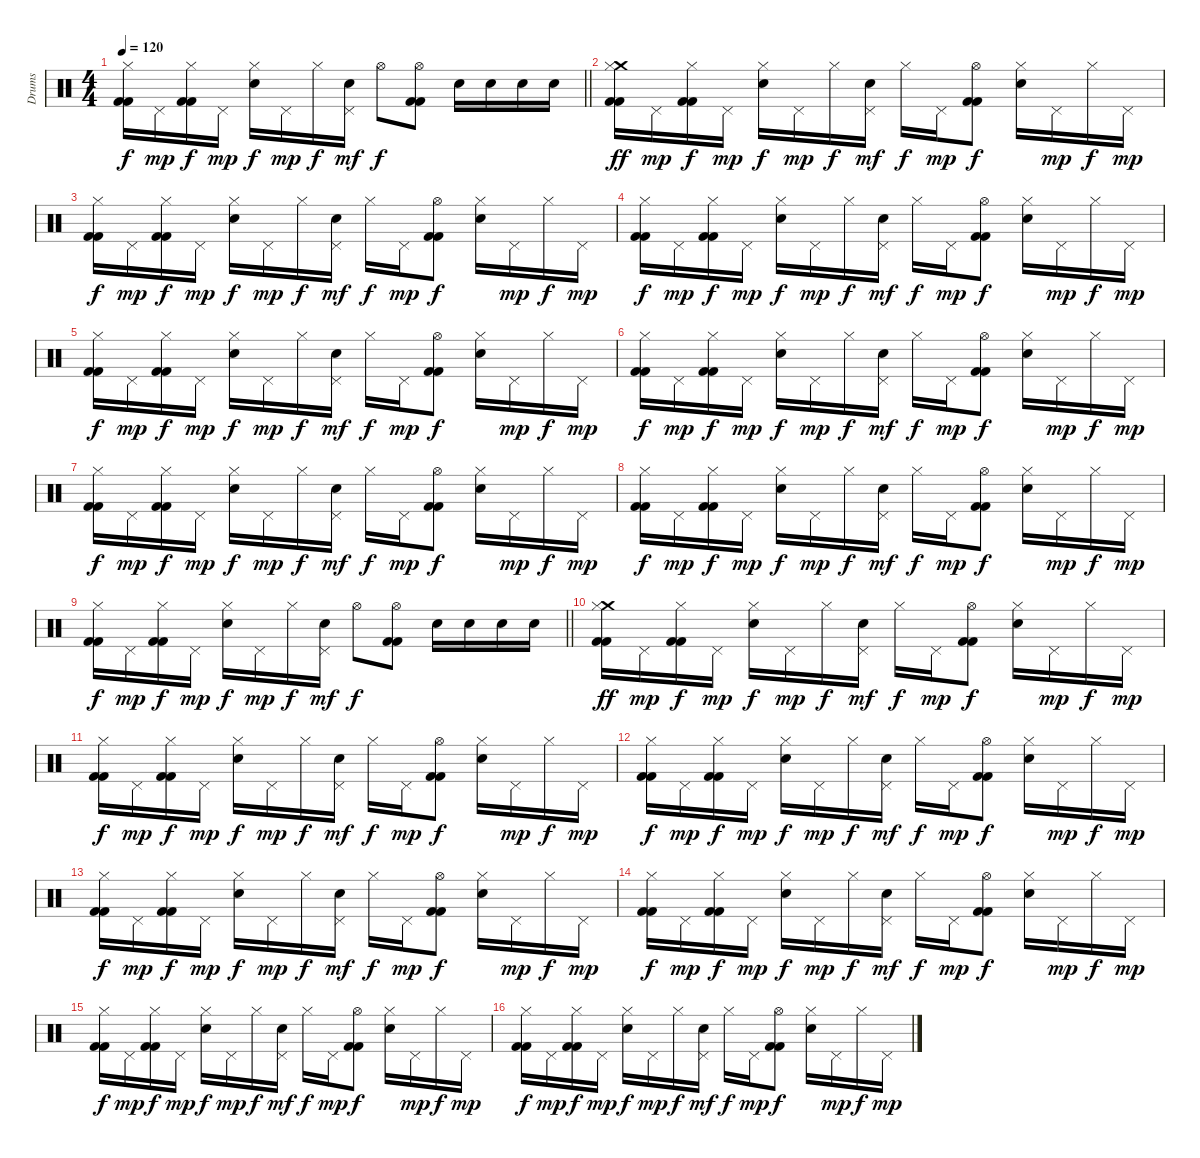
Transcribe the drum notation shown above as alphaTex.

\track ("Drums" "Drums") {instrument percussion}
\staff {score}
\articulation defaults
\ts (4 4)
\tempo 120
\clef neutral
\barLineRight lightlight
\ks c
("Hi-Hat (closed)" "Kick (hit) 2" "Kick (hit) 2").16{dy f} "Pedal Hi-Hat (hit)".16{dy mp} ("Hi-Hat (closed)" "Kick (hit) 2" "Kick (hit) 2").16{dy f} "Pedal Hi-Hat (hit)".16{dy mp} ("Hi-Hat (closed)" "Electric Snare (hit)").16{dy f} "Pedal Hi-Hat (hit)".16{dy mp} "Hi-Hat (closed)".16{dy f} ("Pedal Hi-Hat (hit)" "Electric Snare (hit)").16{dy mf} "Hi-Hat (open)".8{dy f} ("Hi-Hat (open)" "Kick (hit) 2" "Kick (hit) 2").8 "Electric Snare (hit)".16 "Electric Snare (hit)".16 "Electric Snare (hit)".16 "Electric Snare (hit)".16 |
("Crash medium (hit)" "Hi-Hat (closed)" "Kick (hit) 2" "Kick (hit) 2").16{dy ff} "Pedal Hi-Hat (hit)".16{dy mp} ("Hi-Hat (closed)" "Kick (hit) 2" "Kick (hit) 2").16{dy f} "Pedal Hi-Hat (hit)".16{dy mp} ("Hi-Hat (closed)" "Electric Snare (hit)").16{dy f} "Pedal Hi-Hat (hit)".16{dy mp} "Hi-Hat (closed)".16{dy f} ("Pedal Hi-Hat (hit)" "Electric Snare (hit)").16{dy mf} "Hi-Hat (closed)".16{dy f} "Pedal Hi-Hat (hit)".16{dy mp} ("Hi-Hat (open)" "Kick (hit) 2" "Kick (hit) 2").8{dy f} ("Hi-Hat (closed)" "Electric Snare (hit)").16 "Pedal Hi-Hat (hit)".16{dy mp} "Hi-Hat (closed)".16{dy f} "Pedal Hi-Hat (hit)".16{dy mp} |
("Hi-Hat (closed)" "Kick (hit) 2" "Kick (hit) 2").16{dy f} "Pedal Hi-Hat (hit)".16{dy mp} ("Hi-Hat (closed)" "Kick (hit) 2" "Kick (hit) 2").16{dy f} "Pedal Hi-Hat (hit)".16{dy mp} ("Hi-Hat (closed)" "Electric Snare (hit)").16{dy f} "Pedal Hi-Hat (hit)".16{dy mp} "Hi-Hat (closed)".16{dy f} ("Pedal Hi-Hat (hit)" "Electric Snare (hit)").16{dy mf} "Hi-Hat (closed)".16{dy f} "Pedal Hi-Hat (hit)".16{dy mp} ("Hi-Hat (open)" "Kick (hit) 2" "Kick (hit) 2").8{dy f} ("Hi-Hat (closed)" "Electric Snare (hit)").16 "Pedal Hi-Hat (hit)".16{dy mp} "Hi-Hat (closed)".16{dy f} "Pedal Hi-Hat (hit)".16{dy mp} |
("Hi-Hat (closed)" "Kick (hit) 2" "Kick (hit) 2").16{dy f} "Pedal Hi-Hat (hit)".16{dy mp} ("Hi-Hat (closed)" "Kick (hit) 2" "Kick (hit) 2").16{dy f} "Pedal Hi-Hat (hit)".16{dy mp} ("Hi-Hat (closed)" "Electric Snare (hit)").16{dy f} "Pedal Hi-Hat (hit)".16{dy mp} "Hi-Hat (closed)".16{dy f} ("Pedal Hi-Hat (hit)" "Electric Snare (hit)").16{dy mf} "Hi-Hat (closed)".16{dy f} "Pedal Hi-Hat (hit)".16{dy mp} ("Hi-Hat (open)" "Kick (hit) 2" "Kick (hit) 2").8{dy f} ("Hi-Hat (closed)" "Electric Snare (hit)").16 "Pedal Hi-Hat (hit)".16{dy mp} "Hi-Hat (closed)".16{dy f} "Pedal Hi-Hat (hit)".16{dy mp} |
("Hi-Hat (closed)" "Kick (hit) 2" "Kick (hit) 2").16{dy f} "Pedal Hi-Hat (hit)".16{dy mp} ("Hi-Hat (closed)" "Kick (hit) 2" "Kick (hit) 2").16{dy f} "Pedal Hi-Hat (hit)".16{dy mp} ("Hi-Hat (closed)" "Electric Snare (hit)").16{dy f} "Pedal Hi-Hat (hit)".16{dy mp} "Hi-Hat (closed)".16{dy f} ("Pedal Hi-Hat (hit)" "Electric Snare (hit)").16{dy mf} "Hi-Hat (closed)".16{dy f} "Pedal Hi-Hat (hit)".16{dy mp} ("Hi-Hat (open)" "Kick (hit) 2" "Kick (hit) 2").8{dy f} ("Hi-Hat (closed)" "Electric Snare (hit)").16 "Pedal Hi-Hat (hit)".16{dy mp} "Hi-Hat (closed)".16{dy f} "Pedal Hi-Hat (hit)".16{dy mp} |
("Hi-Hat (closed)" "Kick (hit) 2" "Kick (hit) 2").16{dy f} "Pedal Hi-Hat (hit)".16{dy mp} ("Hi-Hat (closed)" "Kick (hit) 2" "Kick (hit) 2").16{dy f} "Pedal Hi-Hat (hit)".16{dy mp} ("Hi-Hat (closed)" "Electric Snare (hit)").16{dy f} "Pedal Hi-Hat (hit)".16{dy mp} "Hi-Hat (closed)".16{dy f} ("Pedal Hi-Hat (hit)" "Electric Snare (hit)").16{dy mf} "Hi-Hat (closed)".16{dy f} "Pedal Hi-Hat (hit)".16{dy mp} ("Hi-Hat (open)" "Kick (hit) 2" "Kick (hit) 2").8{dy f} ("Hi-Hat (closed)" "Electric Snare (hit)").16 "Pedal Hi-Hat (hit)".16{dy mp} "Hi-Hat (closed)".16{dy f} "Pedal Hi-Hat (hit)".16{dy mp} |
("Hi-Hat (closed)" "Kick (hit) 2" "Kick (hit) 2").16{dy f} "Pedal Hi-Hat (hit)".16{dy mp} ("Hi-Hat (closed)" "Kick (hit) 2" "Kick (hit) 2").16{dy f} "Pedal Hi-Hat (hit)".16{dy mp} ("Hi-Hat (closed)" "Electric Snare (hit)").16{dy f} "Pedal Hi-Hat (hit)".16{dy mp} "Hi-Hat (closed)".16{dy f} ("Pedal Hi-Hat (hit)" "Electric Snare (hit)").16{dy mf} "Hi-Hat (closed)".16{dy f} "Pedal Hi-Hat (hit)".16{dy mp} ("Hi-Hat (open)" "Kick (hit) 2" "Kick (hit) 2").8{dy f} ("Hi-Hat (closed)" "Electric Snare (hit)").16 "Pedal Hi-Hat (hit)".16{dy mp} "Hi-Hat (closed)".16{dy f} "Pedal Hi-Hat (hit)".16{dy mp} |
("Hi-Hat (closed)" "Kick (hit) 2" "Kick (hit) 2").16{dy f} "Pedal Hi-Hat (hit)".16{dy mp} ("Hi-Hat (closed)" "Kick (hit) 2" "Kick (hit) 2").16{dy f} "Pedal Hi-Hat (hit)".16{dy mp} ("Hi-Hat (closed)" "Electric Snare (hit)").16{dy f} "Pedal Hi-Hat (hit)".16{dy mp} "Hi-Hat (closed)".16{dy f} ("Pedal Hi-Hat (hit)" "Electric Snare (hit)").16{dy mf} "Hi-Hat (closed)".16{dy f} "Pedal Hi-Hat (hit)".16{dy mp} ("Hi-Hat (open)" "Kick (hit) 2" "Kick (hit) 2").8{dy f} ("Hi-Hat (closed)" "Electric Snare (hit)").16 "Pedal Hi-Hat (hit)".16{dy mp} "Hi-Hat (closed)".16{dy f} "Pedal Hi-Hat (hit)".16{dy mp} |
\barLineRight lightlight
("Hi-Hat (closed)" "Kick (hit) 2" "Kick (hit) 2").16{dy f} "Pedal Hi-Hat (hit)".16{dy mp} ("Hi-Hat (closed)" "Kick (hit) 2" "Kick (hit) 2").16{dy f} "Pedal Hi-Hat (hit)".16{dy mp} ("Hi-Hat (closed)" "Electric Snare (hit)").16{dy f} "Pedal Hi-Hat (hit)".16{dy mp} "Hi-Hat (closed)".16{dy f} ("Pedal Hi-Hat (hit)" "Electric Snare (hit)").16{dy mf} "Hi-Hat (open)".8{dy f} ("Hi-Hat (open)" "Kick (hit) 2" "Kick (hit) 2").8 "Electric Snare (hit)".16 "Electric Snare (hit)".16 "Electric Snare (hit)".16 "Electric Snare (hit)".16 |
("Crash medium (hit)" "Hi-Hat (closed)" "Kick (hit) 2" "Kick (hit) 2").16{dy ff} "Pedal Hi-Hat (hit)".16{dy mp} ("Hi-Hat (closed)" "Kick (hit) 2" "Kick (hit) 2").16{dy f} "Pedal Hi-Hat (hit)".16{dy mp} ("Hi-Hat (closed)" "Electric Snare (hit)").16{dy f} "Pedal Hi-Hat (hit)".16{dy mp} "Hi-Hat (closed)".16{dy f} ("Pedal Hi-Hat (hit)" "Electric Snare (hit)").16{dy mf} "Hi-Hat (closed)".16{dy f} "Pedal Hi-Hat (hit)".16{dy mp} ("Hi-Hat (open)" "Kick (hit) 2" "Kick (hit) 2").8{dy f} ("Hi-Hat (closed)" "Electric Snare (hit)").16 "Pedal Hi-Hat (hit)".16{dy mp} "Hi-Hat (closed)".16{dy f} "Pedal Hi-Hat (hit)".16{dy mp} |
("Hi-Hat (closed)" "Kick (hit) 2" "Kick (hit) 2").16{dy f} "Pedal Hi-Hat (hit)".16{dy mp} ("Hi-Hat (closed)" "Kick (hit) 2" "Kick (hit) 2").16{dy f} "Pedal Hi-Hat (hit)".16{dy mp} ("Hi-Hat (closed)" "Electric Snare (hit)").16{dy f} "Pedal Hi-Hat (hit)".16{dy mp} "Hi-Hat (closed)".16{dy f} ("Pedal Hi-Hat (hit)" "Electric Snare (hit)").16{dy mf} "Hi-Hat (closed)".16{dy f} "Pedal Hi-Hat (hit)".16{dy mp} ("Hi-Hat (open)" "Kick (hit) 2" "Kick (hit) 2").8{dy f} ("Hi-Hat (closed)" "Electric Snare (hit)").16 "Pedal Hi-Hat (hit)".16{dy mp} "Hi-Hat (closed)".16{dy f} "Pedal Hi-Hat (hit)".16{dy mp} |
("Hi-Hat (closed)" "Kick (hit) 2" "Kick (hit) 2").16{dy f} "Pedal Hi-Hat (hit)".16{dy mp} ("Hi-Hat (closed)" "Kick (hit) 2" "Kick (hit) 2").16{dy f} "Pedal Hi-Hat (hit)".16{dy mp} ("Hi-Hat (closed)" "Electric Snare (hit)").16{dy f} "Pedal Hi-Hat (hit)".16{dy mp} "Hi-Hat (closed)".16{dy f} ("Pedal Hi-Hat (hit)" "Electric Snare (hit)").16{dy mf} "Hi-Hat (closed)".16{dy f} "Pedal Hi-Hat (hit)".16{dy mp} ("Hi-Hat (open)" "Kick (hit) 2" "Kick (hit) 2").8{dy f} ("Hi-Hat (closed)" "Electric Snare (hit)").16 "Pedal Hi-Hat (hit)".16{dy mp} "Hi-Hat (closed)".16{dy f} "Pedal Hi-Hat (hit)".16{dy mp} |
("Hi-Hat (closed)" "Kick (hit) 2" "Kick (hit) 2").16{dy f} "Pedal Hi-Hat (hit)".16{dy mp} ("Hi-Hat (closed)" "Kick (hit) 2" "Kick (hit) 2").16{dy f} "Pedal Hi-Hat (hit)".16{dy mp} ("Hi-Hat (closed)" "Electric Snare (hit)").16{dy f} "Pedal Hi-Hat (hit)".16{dy mp} "Hi-Hat (closed)".16{dy f} ("Pedal Hi-Hat (hit)" "Electric Snare (hit)").16{dy mf} "Hi-Hat (closed)".16{dy f} "Pedal Hi-Hat (hit)".16{dy mp} ("Hi-Hat (open)" "Kick (hit) 2" "Kick (hit) 2").8{dy f} ("Hi-Hat (closed)" "Electric Snare (hit)").16 "Pedal Hi-Hat (hit)".16{dy mp} "Hi-Hat (closed)".16{dy f} "Pedal Hi-Hat (hit)".16{dy mp} |
("Hi-Hat (closed)" "Kick (hit) 2" "Kick (hit) 2").16{dy f} "Pedal Hi-Hat (hit)".16{dy mp} ("Hi-Hat (closed)" "Kick (hit) 2" "Kick (hit) 2").16{dy f} "Pedal Hi-Hat (hit)".16{dy mp} ("Hi-Hat (closed)" "Electric Snare (hit)").16{dy f} "Pedal Hi-Hat (hit)".16{dy mp} "Hi-Hat (closed)".16{dy f} ("Pedal Hi-Hat (hit)" "Electric Snare (hit)").16{dy mf} "Hi-Hat (closed)".16{dy f} "Pedal Hi-Hat (hit)".16{dy mp} ("Hi-Hat (open)" "Kick (hit) 2" "Kick (hit) 2").8{dy f} ("Hi-Hat (closed)" "Electric Snare (hit)").16 "Pedal Hi-Hat (hit)".16{dy mp} "Hi-Hat (closed)".16{dy f} "Pedal Hi-Hat (hit)".16{dy mp} |
("Hi-Hat (closed)" "Kick (hit) 2" "Kick (hit) 2").16{dy f} "Pedal Hi-Hat (hit)".16{dy mp} ("Hi-Hat (closed)" "Kick (hit) 2" "Kick (hit) 2").16{dy f} "Pedal Hi-Hat (hit)".16{dy mp} ("Hi-Hat (closed)" "Electric Snare (hit)").16{dy f} "Pedal Hi-Hat (hit)".16{dy mp} "Hi-Hat (closed)".16{dy f} ("Pedal Hi-Hat (hit)" "Electric Snare (hit)").16{dy mf} "Hi-Hat (closed)".16{dy f} "Pedal Hi-Hat (hit)".16{dy mp} ("Hi-Hat (open)" "Kick (hit) 2" "Kick (hit) 2").8{dy f} ("Hi-Hat (closed)" "Electric Snare (hit)").16 "Pedal Hi-Hat (hit)".16{dy mp} "Hi-Hat (closed)".16{dy f} "Pedal Hi-Hat (hit)".16{dy mp} |
("Hi-Hat (closed)" "Kick (hit) 2" "Kick (hit) 2").16{dy f} "Pedal Hi-Hat (hit)".16{dy mp} ("Hi-Hat (closed)" "Kick (hit) 2" "Kick (hit) 2").16{dy f} "Pedal Hi-Hat (hit)".16{dy mp} ("Hi-Hat (closed)" "Electric Snare (hit)").16{dy f} "Pedal Hi-Hat (hit)".16{dy mp} "Hi-Hat (closed)".16{dy f} ("Pedal Hi-Hat (hit)" "Electric Snare (hit)").16{dy mf} "Hi-Hat (closed)".16{dy f} "Pedal Hi-Hat (hit)".16{dy mp} ("Hi-Hat (open)" "Kick (hit) 2" "Kick (hit) 2").8{dy f} ("Hi-Hat (closed)" "Electric Snare (hit)").16 "Pedal Hi-Hat (hit)".16{dy mp} "Hi-Hat (closed)".16{dy f} "Pedal Hi-Hat (hit)".16{dy mp}
